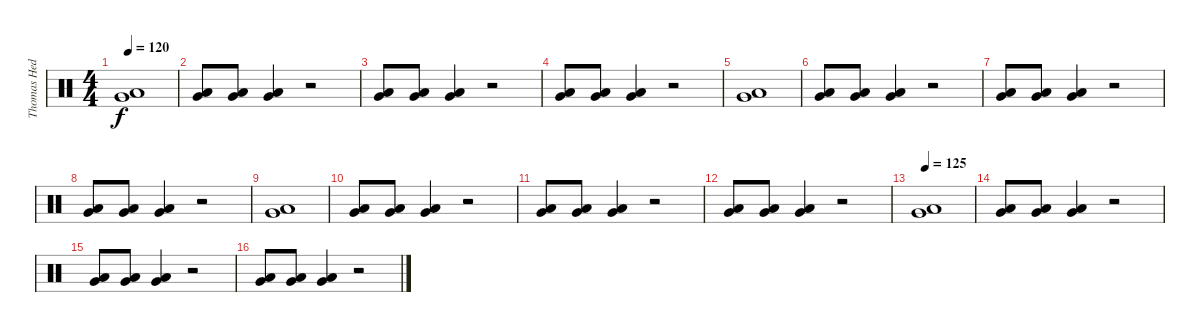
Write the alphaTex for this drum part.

\track ("Thomas Hedlund" "Thomas Hed") {instrument percussion}
\staff {score}
\articulation defaults
\ts (4 4)
\tempo 120
\clef neutral
\ks c
("Very Low Tom (hit)" "Low Floor Tom (hit)").1{dy f} |
("Very Low Tom (hit)" "Low Floor Tom (hit)").8 ("Very Low Tom (hit)" "Low Floor Tom (hit)").8 ("Very Low Tom (hit)" "Low Floor Tom (hit)").4 r.2 |
("Very Low Tom (hit)" "Low Floor Tom (hit)").8 ("Very Low Tom (hit)" "Low Floor Tom (hit)").8 ("Very Low Tom (hit)" "Low Floor Tom (hit)").4 r.2 |
("Very Low Tom (hit)" "Low Floor Tom (hit)").8 ("Very Low Tom (hit)" "Low Floor Tom (hit)").8 ("Very Low Tom (hit)" "Low Floor Tom (hit)").4 r.2 |
("Very Low Tom (hit)" "Low Floor Tom (hit)").1 |
("Very Low Tom (hit)" "Low Floor Tom (hit)").8 ("Very Low Tom (hit)" "Low Floor Tom (hit)").8 ("Very Low Tom (hit)" "Low Floor Tom (hit)").4 r.2 |
("Very Low Tom (hit)" "Low Floor Tom (hit)").8 ("Very Low Tom (hit)" "Low Floor Tom (hit)").8 ("Very Low Tom (hit)" "Low Floor Tom (hit)").4 r.2 |
("Very Low Tom (hit)" "Low Floor Tom (hit)").8 ("Very Low Tom (hit)" "Low Floor Tom (hit)").8 ("Very Low Tom (hit)" "Low Floor Tom (hit)").4 r.2 |
("Very Low Tom (hit)" "Low Floor Tom (hit)").1 |
("Very Low Tom (hit)" "Low Floor Tom (hit)").8 ("Very Low Tom (hit)" "Low Floor Tom (hit)").8 ("Very Low Tom (hit)" "Low Floor Tom (hit)").4 r.2 |
("Very Low Tom (hit)" "Low Floor Tom (hit)").8 ("Very Low Tom (hit)" "Low Floor Tom (hit)").8 ("Very Low Tom (hit)" "Low Floor Tom (hit)").4 r.2 |
("Very Low Tom (hit)" "Low Floor Tom (hit)").8 ("Very Low Tom (hit)" "Low Floor Tom (hit)").8 ("Very Low Tom (hit)" "Low Floor Tom (hit)").4 r.2 |
\tempo 125
("Very Low Tom (hit)" "Low Floor Tom (hit)").1 |
("Very Low Tom (hit)" "Low Floor Tom (hit)").8 ("Very Low Tom (hit)" "Low Floor Tom (hit)").8 ("Very Low Tom (hit)" "Low Floor Tom (hit)").4 r.2 |
("Very Low Tom (hit)" "Low Floor Tom (hit)").8 ("Very Low Tom (hit)" "Low Floor Tom (hit)").8 ("Very Low Tom (hit)" "Low Floor Tom (hit)").4 r.2 |
("Very Low Tom (hit)" "Low Floor Tom (hit)").8 ("Very Low Tom (hit)" "Low Floor Tom (hit)").8 ("Very Low Tom (hit)" "Low Floor Tom (hit)").4 r.2
